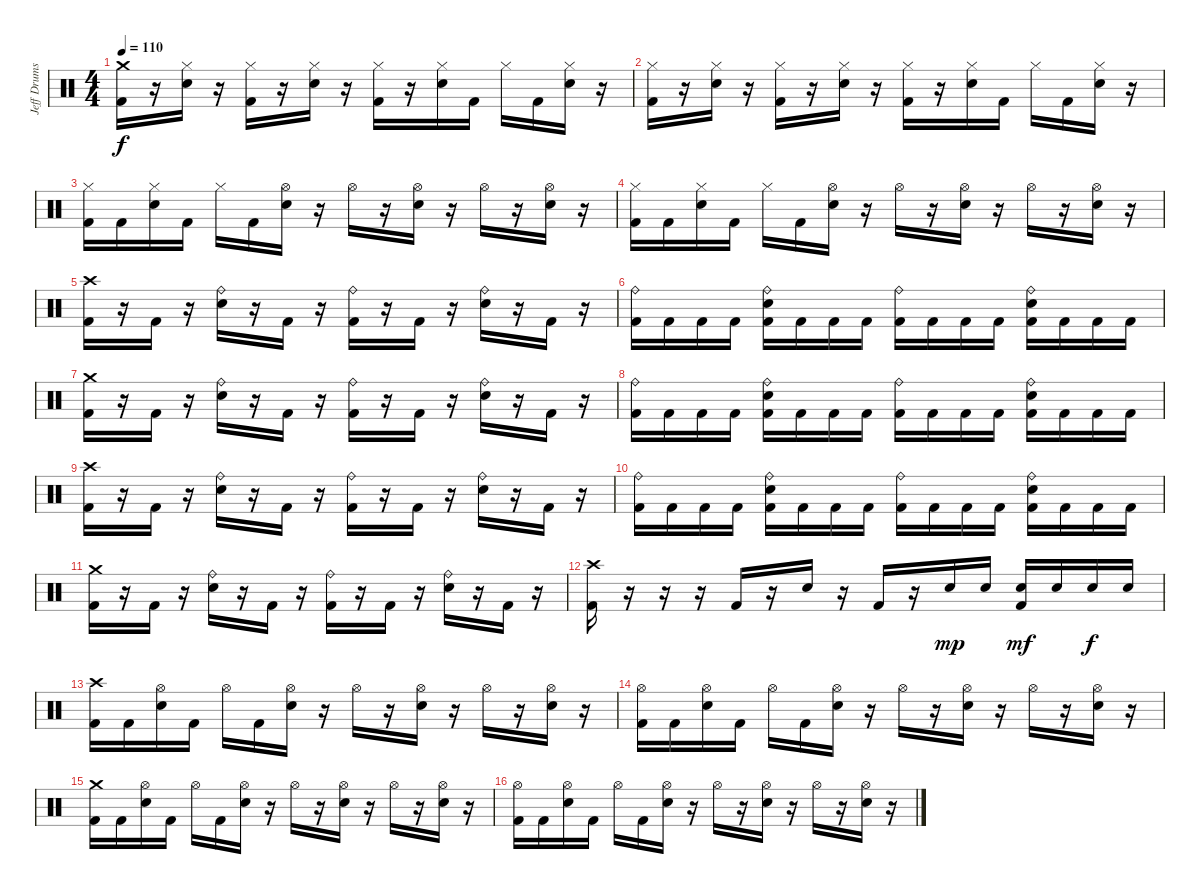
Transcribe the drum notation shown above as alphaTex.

\track ("Jeff Drums" "Jeff Drums") {instrument percussion}
\staff {score}
\articulation defaults
\ts (4 4)
\tempo 110
\clef neutral
\ks c
("Crash medium (hit)" "Kick (hit) 2").16{dy f} r.16 ("Hi-Hat (closed)" "Electric Snare (hit)").16 r.16 ("Hi-Hat (closed)" "Kick (hit) 2").16 r.16 ("Hi-Hat (closed)" "Electric Snare (hit)").16 r.16 ("Hi-Hat (closed)" "Kick (hit) 2").16 r.16 ("Hi-Hat (closed)" "Electric Snare (hit)").16 "Kick (hit) 2".16 "Hi-Hat (closed)".16 "Kick (hit) 2".16 ("Hi-Hat (closed)" "Electric Snare (hit)").16 r.16 |
("Hi-Hat (closed)" "Kick (hit) 2").16 r.16 ("Hi-Hat (closed)" "Electric Snare (hit)").16 r.16 ("Hi-Hat (closed)" "Kick (hit) 2").16 r.16 ("Hi-Hat (closed)" "Electric Snare (hit)").16 r.16 ("Hi-Hat (closed)" "Kick (hit) 2").16 r.16 ("Hi-Hat (closed)" "Electric Snare (hit)").16 "Kick (hit) 2".16 "Hi-Hat (closed)".16 "Kick (hit) 2".16 ("Hi-Hat (closed)" "Electric Snare (hit)").16 r.16 |
("Hi-Hat (closed)" "Kick (hit) 2").16 "Kick (hit) 2".16 ("Hi-Hat (closed)" "Electric Snare (hit)").16 "Kick (hit) 2".16 "Hi-Hat (closed)".16 "Kick (hit) 2".16 ("Hi-Hat (open)" "Electric Snare (hit)").16 r.16 "Hi-Hat (open)".16 r.16 ("Hi-Hat (open)" "Electric Snare (hit)").16 r.16 "Hi-Hat (open)".16 r.16 ("Hi-Hat (open)" "Electric Snare (hit)").16 r.16 |
("Hi-Hat (closed)" "Kick (hit) 2").16 "Kick (hit) 2".16 ("Hi-Hat (closed)" "Electric Snare (hit)").16 "Kick (hit) 2".16 "Hi-Hat (closed)".16 "Kick (hit) 2".16 ("Hi-Hat (open)" "Electric Snare (hit)").16 r.16 "Hi-Hat (open)".16 r.16 ("Hi-Hat (open)" "Electric Snare (hit)").16 r.16 "Hi-Hat (open)".16 r.16 ("Hi-Hat (open)" "Electric Snare (hit)").16 r.16 |
("Crash high (hit)" "Kick (hit) 2").16 r.16 "Kick (hit) 2".16 r.16 ("Ride (bell)" "Electric Snare (hit)").16 r.16 "Kick (hit) 2".16 r.16 ("Ride (bell)" "Kick (hit) 2").16 r.16 "Kick (hit) 2".16 r.16 ("Ride (bell)" "Electric Snare (hit)").16 r.16 "Kick (hit) 2".16 r.16 |
("Ride (bell)" "Kick (hit) 2").16 "Kick (hit) 2".16 "Kick (hit) 2".16 "Kick (hit) 2".16 ("Ride (bell)" "Electric Snare (hit)" "Kick (hit) 2").16 "Kick (hit) 2".16 "Kick (hit) 2".16 "Kick (hit) 2".16 ("Ride (bell)" "Kick (hit) 2").16 "Kick (hit) 2".16 "Kick (hit) 2".16 "Kick (hit) 2".16 ("Ride (bell)" "Electric Snare (hit)" "Kick (hit) 2").16 "Kick (hit) 2".16 "Kick (hit) 2".16 "Kick (hit) 2".16 |
("Crash medium (hit)" "Kick (hit) 2").16 r.16 "Kick (hit) 2".16 r.16 ("Ride (bell)" "Electric Snare (hit)").16 r.16 "Kick (hit) 2".16 r.16 ("Ride (bell)" "Kick (hit) 2").16 r.16 "Kick (hit) 2".16 r.16 ("Ride (bell)" "Electric Snare (hit)").16 r.16 "Kick (hit) 2".16 r.16 |
("Ride (bell)" "Kick (hit) 2").16 "Kick (hit) 2".16 "Kick (hit) 2".16 "Kick (hit) 2".16 ("Ride (bell)" "Electric Snare (hit)" "Kick (hit) 2").16 "Kick (hit) 2".16 "Kick (hit) 2".16 "Kick (hit) 2".16 ("Ride (bell)" "Kick (hit) 2").16 "Kick (hit) 2".16 "Kick (hit) 2".16 "Kick (hit) 2".16 ("Ride (bell)" "Electric Snare (hit)" "Kick (hit) 2").16 "Kick (hit) 2".16 "Kick (hit) 2".16 "Kick (hit) 2".16 |
("Crash high (hit)" "Kick (hit) 2").16 r.16 "Kick (hit) 2".16 r.16 ("Ride (bell)" "Electric Snare (hit)").16 r.16 "Kick (hit) 2".16 r.16 ("Ride (bell)" "Kick (hit) 2").16 r.16 "Kick (hit) 2".16 r.16 ("Ride (bell)" "Electric Snare (hit)").16 r.16 "Kick (hit) 2".16 r.16 |
("Ride (bell)" "Kick (hit) 2").16 "Kick (hit) 2".16 "Kick (hit) 2".16 "Kick (hit) 2".16 ("Ride (bell)" "Electric Snare (hit)" "Kick (hit) 2").16 "Kick (hit) 2".16 "Kick (hit) 2".16 "Kick (hit) 2".16 ("Ride (bell)" "Kick (hit) 2").16 "Kick (hit) 2".16 "Kick (hit) 2".16 "Kick (hit) 2".16 ("Ride (bell)" "Electric Snare (hit)" "Kick (hit) 2").16 "Kick (hit) 2".16 "Kick (hit) 2".16 "Kick (hit) 2".16 |
("Crash medium (hit)" "Kick (hit) 2").16 r.16 "Kick (hit) 2".16 r.16 ("Ride (bell)" "Electric Snare (hit)").16 r.16 "Kick (hit) 2".16 r.16 ("Ride (bell)" "Kick (hit) 2").16 r.16 "Kick (hit) 2".16 r.16 ("Ride (bell)" "Electric Snare (hit)").16 r.16 "Kick (hit) 2".16 r.16 |
("Crash high (hit)" "Kick (hit) 2").16 r.16 r.16 r.16 "Kick (hit) 2".16 r.16 "Electric Snare (hit)".16 r.16 "Kick (hit) 2".16 r.16 "Electric Snare (hit)".16{dy mp} "Electric Snare (hit)".16 ("Electric Snare (hit)" "Kick (hit) 2").16{dy mf} "Electric Snare (hit)".16 "Electric Snare (hit)".16{dy f} "Electric Snare (hit)".16 |
("Crash high (hit)" "Kick (hit) 2").16 "Kick (hit) 2".16 ("Hi-Hat (open)" "Electric Snare (hit)").16 "Kick (hit) 2".16 "Hi-Hat (open)".16 "Kick (hit) 2".16 ("Hi-Hat (open)" "Electric Snare (hit)").16 r.16 "Hi-Hat (open)".16 r.16 ("Hi-Hat (open)" "Electric Snare (hit)").16 r.16 "Hi-Hat (open)".16 r.16 ("Hi-Hat (open)" "Electric Snare (hit)").16 r.16 |
("Hi-Hat (open)" "Kick (hit) 2").16 "Kick (hit) 2".16 ("Hi-Hat (open)" "Electric Snare (hit)").16 "Kick (hit) 2".16 "Hi-Hat (open)".16 "Kick (hit) 2".16 ("Hi-Hat (open)" "Electric Snare (hit)").16 r.16 "Hi-Hat (open)".16 r.16 ("Hi-Hat (open)" "Electric Snare (hit)").16 r.16 "Hi-Hat (open)".16 r.16 ("Hi-Hat (open)" "Electric Snare (hit)").16 r.16 |
("Crash medium (hit)" "Kick (hit) 2").16 "Kick (hit) 2".16 ("Hi-Hat (open)" "Electric Snare (hit)").16 "Kick (hit) 2".16 "Hi-Hat (open)".16 "Kick (hit) 2".16 ("Hi-Hat (open)" "Electric Snare (hit)").16 r.16 "Hi-Hat (open)".16 r.16 ("Hi-Hat (open)" "Electric Snare (hit)").16 r.16 "Hi-Hat (open)".16 r.16 ("Hi-Hat (open)" "Electric Snare (hit)").16 r.16 |
("Hi-Hat (open)" "Kick (hit) 2").16 "Kick (hit) 2".16 ("Hi-Hat (open)" "Electric Snare (hit)").16 "Kick (hit) 2".16 "Hi-Hat (open)".16 "Kick (hit) 2".16 ("Hi-Hat (open)" "Electric Snare (hit)").16 r.16 "Hi-Hat (open)".16 r.16 ("Hi-Hat (open)" "Electric Snare (hit)").16 r.16 "Hi-Hat (open)".16 r.16 ("Hi-Hat (open)" "Electric Snare (hit)").16 r.16
